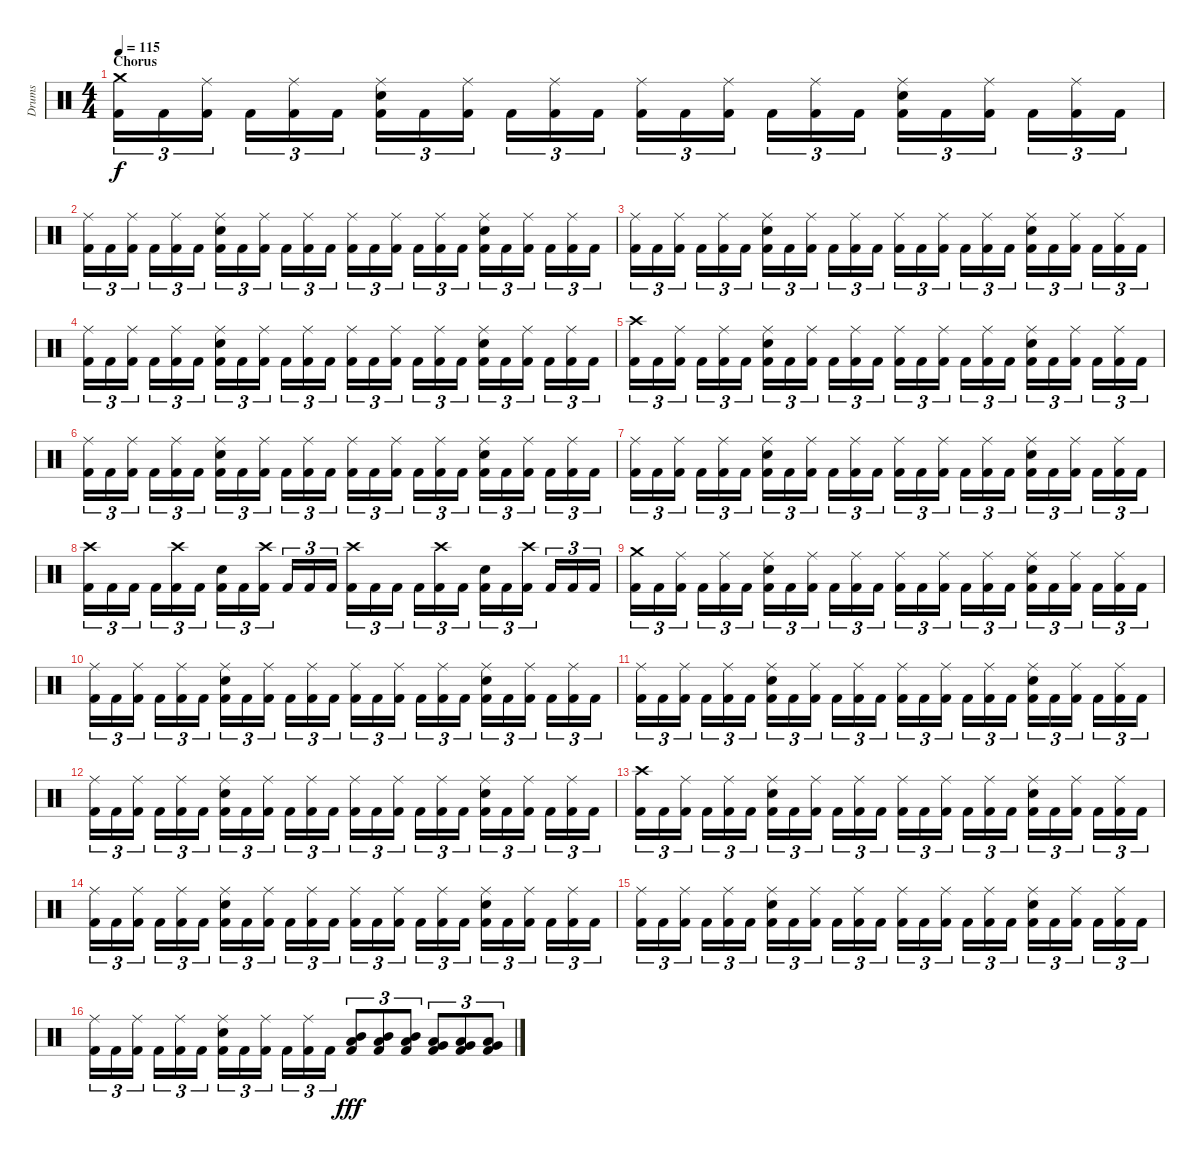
\track ("Drums" "Drums") {instrument percussion}
\staff {score}
\articulation defaults
\ts (4 4)
\section ("" "Chorus")
\tempo 115
\clef neutral
\ks c
("Kick (hit) 2" "Crash medium (hit)").16{tu (3 2) dy f} "Kick (hit) 2".16{tu (3 2)} ("Kick (hit) 2" "Ride (middle)").16{tu (3 2)} "Kick (hit) 2".16{tu (3 2)} ("Kick (hit) 2" "Ride (middle)").16{tu (3 2)} "Kick (hit) 2".16{tu (3 2)} ("Kick (hit) 2" "Electric Snare (hit)" "Ride (middle)").16{tu (3 2)} "Kick (hit) 2".16{tu (3 2)} ("Kick (hit) 2" "Ride (middle)").16{tu (3 2)} "Kick (hit) 2".16{tu (3 2)} ("Kick (hit) 2" "Ride (middle)").16{tu (3 2)} "Kick (hit) 2".16{tu (3 2)} ("Kick (hit) 2" "Ride (middle)").16{tu (3 2)} "Kick (hit) 2".16{tu (3 2)} ("Kick (hit) 2" "Ride (middle)").16{tu (3 2)} "Kick (hit) 2".16{tu (3 2)} ("Kick (hit) 2" "Ride (middle)").16{tu (3 2)} "Kick (hit) 2".16{tu (3 2)} ("Kick (hit) 2" "Electric Snare (hit)" "Ride (middle)").16{tu (3 2)} "Kick (hit) 2".16{tu (3 2)} ("Kick (hit) 2" "Ride (middle)").16{tu (3 2)} "Kick (hit) 2".16{tu (3 2)} ("Kick (hit) 2" "Ride (middle)").16{tu (3 2)} "Kick (hit) 2".16{tu (3 2)} |
("Kick (hit) 2" "Ride (middle)").16{tu (3 2)} "Kick (hit) 2".16{tu (3 2)} ("Kick (hit) 2" "Ride (middle)").16{tu (3 2)} "Kick (hit) 2".16{tu (3 2)} ("Kick (hit) 2" "Ride (middle)").16{tu (3 2)} "Kick (hit) 2".16{tu (3 2)} ("Kick (hit) 2" "Electric Snare (hit)" "Ride (middle)").16{tu (3 2)} "Kick (hit) 2".16{tu (3 2)} ("Kick (hit) 2" "Ride (middle)").16{tu (3 2)} "Kick (hit) 2".16{tu (3 2)} ("Kick (hit) 2" "Ride (middle)").16{tu (3 2)} "Kick (hit) 2".16{tu (3 2)} ("Kick (hit) 2" "Ride (middle)").16{tu (3 2)} "Kick (hit) 2".16{tu (3 2)} ("Kick (hit) 2" "Ride (middle)").16{tu (3 2)} "Kick (hit) 2".16{tu (3 2)} ("Kick (hit) 2" "Ride (middle)").16{tu (3 2)} "Kick (hit) 2".16{tu (3 2)} ("Kick (hit) 2" "Electric Snare (hit)" "Ride (middle)").16{tu (3 2)} "Kick (hit) 2".16{tu (3 2)} ("Kick (hit) 2" "Ride (middle)").16{tu (3 2)} "Kick (hit) 2".16{tu (3 2)} ("Kick (hit) 2" "Ride (middle)").16{tu (3 2)} "Kick (hit) 2".16{tu (3 2)} |
("Kick (hit) 2" "Ride (middle)").16{tu (3 2)} "Kick (hit) 2".16{tu (3 2)} ("Kick (hit) 2" "Ride (middle)").16{tu (3 2)} "Kick (hit) 2".16{tu (3 2)} ("Kick (hit) 2" "Ride (middle)").16{tu (3 2)} "Kick (hit) 2".16{tu (3 2)} ("Kick (hit) 2" "Electric Snare (hit)" "Ride (middle)").16{tu (3 2)} "Kick (hit) 2".16{tu (3 2)} ("Kick (hit) 2" "Ride (middle)").16{tu (3 2)} "Kick (hit) 2".16{tu (3 2)} ("Kick (hit) 2" "Ride (middle)").16{tu (3 2)} "Kick (hit) 2".16{tu (3 2)} ("Kick (hit) 2" "Ride (middle)").16{tu (3 2)} "Kick (hit) 2".16{tu (3 2)} ("Kick (hit) 2" "Ride (middle)").16{tu (3 2)} "Kick (hit) 2".16{tu (3 2)} ("Kick (hit) 2" "Ride (middle)").16{tu (3 2)} "Kick (hit) 2".16{tu (3 2)} ("Kick (hit) 2" "Electric Snare (hit)" "Ride (middle)").16{tu (3 2)} "Kick (hit) 2".16{tu (3 2)} ("Kick (hit) 2" "Ride (middle)").16{tu (3 2)} "Kick (hit) 2".16{tu (3 2)} ("Kick (hit) 2" "Ride (middle)").16{tu (3 2)} "Kick (hit) 2".16{tu (3 2)} |
("Kick (hit) 2" "Ride (middle)").16{tu (3 2)} "Kick (hit) 2".16{tu (3 2)} ("Kick (hit) 2" "Ride (middle)").16{tu (3 2)} "Kick (hit) 2".16{tu (3 2)} ("Kick (hit) 2" "Ride (middle)").16{tu (3 2)} "Kick (hit) 2".16{tu (3 2)} ("Kick (hit) 2" "Electric Snare (hit)" "Ride (middle)").16{tu (3 2)} "Kick (hit) 2".16{tu (3 2)} ("Kick (hit) 2" "Ride (middle)").16{tu (3 2)} "Kick (hit) 2".16{tu (3 2)} ("Kick (hit) 2" "Ride (middle)").16{tu (3 2)} "Kick (hit) 2".16{tu (3 2)} ("Kick (hit) 2" "Ride (middle)").16{tu (3 2)} "Kick (hit) 2".16{tu (3 2)} ("Kick (hit) 2" "Ride (middle)").16{tu (3 2)} "Kick (hit) 2".16{tu (3 2)} ("Kick (hit) 2" "Ride (middle)").16{tu (3 2)} "Kick (hit) 2".16{tu (3 2)} ("Kick (hit) 2" "Electric Snare (hit)" "Ride (middle)").16{tu (3 2)} "Kick (hit) 2".16{tu (3 2)} ("Kick (hit) 2" "Ride (middle)").16{tu (3 2)} "Kick (hit) 2".16{tu (3 2)} ("Kick (hit) 2" "Ride (middle)").16{tu (3 2)} "Kick (hit) 2".16{tu (3 2)} |
("Kick (hit) 2" "Crash high (hit)").16{tu (3 2)} "Kick (hit) 2".16{tu (3 2)} ("Kick (hit) 2" "Ride (middle)").16{tu (3 2)} "Kick (hit) 2".16{tu (3 2)} ("Kick (hit) 2" "Ride (middle)").16{tu (3 2)} "Kick (hit) 2".16{tu (3 2)} ("Kick (hit) 2" "Electric Snare (hit)" "Ride (middle)").16{tu (3 2)} "Kick (hit) 2".16{tu (3 2)} ("Kick (hit) 2" "Ride (middle)").16{tu (3 2)} "Kick (hit) 2".16{tu (3 2)} ("Kick (hit) 2" "Ride (middle)").16{tu (3 2)} "Kick (hit) 2".16{tu (3 2)} ("Kick (hit) 2" "Ride (middle)").16{tu (3 2)} "Kick (hit) 2".16{tu (3 2)} ("Kick (hit) 2" "Ride (middle)").16{tu (3 2)} "Kick (hit) 2".16{tu (3 2)} ("Kick (hit) 2" "Ride (middle)").16{tu (3 2)} "Kick (hit) 2".16{tu (3 2)} ("Kick (hit) 2" "Electric Snare (hit)" "Ride (middle)").16{tu (3 2)} "Kick (hit) 2".16{tu (3 2)} ("Kick (hit) 2" "Ride (middle)").16{tu (3 2)} "Kick (hit) 2".16{tu (3 2)} ("Kick (hit) 2" "Ride (middle)").16{tu (3 2)} "Kick (hit) 2".16{tu (3 2)} |
("Kick (hit) 2" "Ride (middle)").16{tu (3 2)} "Kick (hit) 2".16{tu (3 2)} ("Kick (hit) 2" "Ride (middle)").16{tu (3 2)} "Kick (hit) 2".16{tu (3 2)} ("Kick (hit) 2" "Ride (middle)").16{tu (3 2)} "Kick (hit) 2".16{tu (3 2)} ("Kick (hit) 2" "Electric Snare (hit)" "Ride (middle)").16{tu (3 2)} "Kick (hit) 2".16{tu (3 2)} ("Kick (hit) 2" "Ride (middle)").16{tu (3 2)} "Kick (hit) 2".16{tu (3 2)} ("Kick (hit) 2" "Ride (middle)").16{tu (3 2)} "Kick (hit) 2".16{tu (3 2)} ("Kick (hit) 2" "Ride (middle)").16{tu (3 2)} "Kick (hit) 2".16{tu (3 2)} ("Kick (hit) 2" "Ride (middle)").16{tu (3 2)} "Kick (hit) 2".16{tu (3 2)} ("Kick (hit) 2" "Ride (middle)").16{tu (3 2)} "Kick (hit) 2".16{tu (3 2)} ("Kick (hit) 2" "Electric Snare (hit)" "Ride (middle)").16{tu (3 2)} "Kick (hit) 2".16{tu (3 2)} ("Kick (hit) 2" "Ride (middle)").16{tu (3 2)} "Kick (hit) 2".16{tu (3 2)} ("Kick (hit) 2" "Ride (middle)").16{tu (3 2)} "Kick (hit) 2".16{tu (3 2)} |
("Kick (hit) 2" "Ride (middle)").16{tu (3 2)} "Kick (hit) 2".16{tu (3 2)} ("Kick (hit) 2" "Ride (middle)").16{tu (3 2)} "Kick (hit) 2".16{tu (3 2)} ("Kick (hit) 2" "Ride (middle)").16{tu (3 2)} "Kick (hit) 2".16{tu (3 2)} ("Kick (hit) 2" "Electric Snare (hit)" "Ride (middle)").16{tu (3 2)} "Kick (hit) 2".16{tu (3 2)} ("Kick (hit) 2" "Ride (middle)").16{tu (3 2)} "Kick (hit) 2".16{tu (3 2)} ("Kick (hit) 2" "Ride (middle)").16{tu (3 2)} "Kick (hit) 2".16{tu (3 2)} ("Kick (hit) 2" "Ride (middle)").16{tu (3 2)} "Kick (hit) 2".16{tu (3 2)} ("Kick (hit) 2" "Ride (middle)").16{tu (3 2)} "Kick (hit) 2".16{tu (3 2)} ("Kick (hit) 2" "Ride (middle)").16{tu (3 2)} "Kick (hit) 2".16{tu (3 2)} ("Kick (hit) 2" "Electric Snare (hit)" "Ride (middle)").16{tu (3 2)} "Kick (hit) 2".16{tu (3 2)} ("Kick (hit) 2" "Ride (middle)").16{tu (3 2)} "Kick (hit) 2".16{tu (3 2)} ("Kick (hit) 2" "Ride (middle)").16{tu (3 2)} "Kick (hit) 2".16{tu (3 2)} |
("Kick (hit) 2" "Crash high (hit)").16{tu (3 2)} "Kick (hit) 2".16{tu (3 2)} "Kick (hit) 2".16{tu (3 2)} "Kick (hit) 2".16{tu (3 2)} ("Kick (hit) 2" "Crash high (hit)").16{tu (3 2)} "Kick (hit) 2".16{tu (3 2)} ("Kick (hit) 2" "Electric Snare (hit)").16{tu (3 2)} "Kick (hit) 2".16{tu (3 2)} ("Kick (hit) 2" "Crash high (hit)").16{tu (3 2)} "Kick (hit) 2".16{tu (3 2)} "Kick (hit) 2".16{tu (3 2)} "Kick (hit) 2".16{tu (3 2)} ("Kick (hit) 2" "Crash high (hit)").16{tu (3 2)} "Kick (hit) 2".16{tu (3 2)} "Kick (hit) 2".16{tu (3 2)} "Kick (hit) 2".16{tu (3 2)} ("Kick (hit) 2" "Crash high (hit)").16{tu (3 2)} "Kick (hit) 2".16{tu (3 2)} ("Kick (hit) 2" "Electric Snare (hit)").16{tu (3 2)} "Kick (hit) 2".16{tu (3 2)} ("Kick (hit) 2" "Crash high (hit)").16{tu (3 2)} "Kick (hit) 2".16{tu (3 2)} "Kick (hit) 2".16{tu (3 2)} "Kick (hit) 2".16{tu (3 2)} |
("Kick (hit) 2" "Crash medium (hit)").16{tu (3 2)} "Kick (hit) 2".16{tu (3 2)} ("Kick (hit) 2" "Ride (middle)").16{tu (3 2)} "Kick (hit) 2".16{tu (3 2)} ("Kick (hit) 2" "Ride (middle)").16{tu (3 2)} "Kick (hit) 2".16{tu (3 2)} ("Kick (hit) 2" "Electric Snare (hit)" "Ride (middle)").16{tu (3 2)} "Kick (hit) 2".16{tu (3 2)} ("Kick (hit) 2" "Ride (middle)").16{tu (3 2)} "Kick (hit) 2".16{tu (3 2)} ("Kick (hit) 2" "Ride (middle)").16{tu (3 2)} "Kick (hit) 2".16{tu (3 2)} ("Kick (hit) 2" "Ride (middle)").16{tu (3 2)} "Kick (hit) 2".16{tu (3 2)} ("Kick (hit) 2" "Ride (middle)").16{tu (3 2)} "Kick (hit) 2".16{tu (3 2)} ("Kick (hit) 2" "Ride (middle)").16{tu (3 2)} "Kick (hit) 2".16{tu (3 2)} ("Kick (hit) 2" "Electric Snare (hit)" "Ride (middle)").16{tu (3 2)} "Kick (hit) 2".16{tu (3 2)} ("Kick (hit) 2" "Ride (middle)").16{tu (3 2)} "Kick (hit) 2".16{tu (3 2)} ("Kick (hit) 2" "Ride (middle)").16{tu (3 2)} "Kick (hit) 2".16{tu (3 2)} |
("Kick (hit) 2" "Ride (middle)").16{tu (3 2)} "Kick (hit) 2".16{tu (3 2)} ("Kick (hit) 2" "Ride (middle)").16{tu (3 2)} "Kick (hit) 2".16{tu (3 2)} ("Kick (hit) 2" "Ride (middle)").16{tu (3 2)} "Kick (hit) 2".16{tu (3 2)} ("Kick (hit) 2" "Electric Snare (hit)" "Ride (middle)").16{tu (3 2)} "Kick (hit) 2".16{tu (3 2)} ("Kick (hit) 2" "Ride (middle)").16{tu (3 2)} "Kick (hit) 2".16{tu (3 2)} ("Kick (hit) 2" "Ride (middle)").16{tu (3 2)} "Kick (hit) 2".16{tu (3 2)} ("Kick (hit) 2" "Ride (middle)").16{tu (3 2)} "Kick (hit) 2".16{tu (3 2)} ("Kick (hit) 2" "Ride (middle)").16{tu (3 2)} "Kick (hit) 2".16{tu (3 2)} ("Kick (hit) 2" "Ride (middle)").16{tu (3 2)} "Kick (hit) 2".16{tu (3 2)} ("Kick (hit) 2" "Electric Snare (hit)" "Ride (middle)").16{tu (3 2)} "Kick (hit) 2".16{tu (3 2)} ("Kick (hit) 2" "Ride (middle)").16{tu (3 2)} "Kick (hit) 2".16{tu (3 2)} ("Kick (hit) 2" "Ride (middle)").16{tu (3 2)} "Kick (hit) 2".16{tu (3 2)} |
("Kick (hit) 2" "Ride (middle)").16{tu (3 2)} "Kick (hit) 2".16{tu (3 2)} ("Kick (hit) 2" "Ride (middle)").16{tu (3 2)} "Kick (hit) 2".16{tu (3 2)} ("Kick (hit) 2" "Ride (middle)").16{tu (3 2)} "Kick (hit) 2".16{tu (3 2)} ("Kick (hit) 2" "Electric Snare (hit)" "Ride (middle)").16{tu (3 2)} "Kick (hit) 2".16{tu (3 2)} ("Kick (hit) 2" "Ride (middle)").16{tu (3 2)} "Kick (hit) 2".16{tu (3 2)} ("Kick (hit) 2" "Ride (middle)").16{tu (3 2)} "Kick (hit) 2".16{tu (3 2)} ("Kick (hit) 2" "Ride (middle)").16{tu (3 2)} "Kick (hit) 2".16{tu (3 2)} ("Kick (hit) 2" "Ride (middle)").16{tu (3 2)} "Kick (hit) 2".16{tu (3 2)} ("Kick (hit) 2" "Ride (middle)").16{tu (3 2)} "Kick (hit) 2".16{tu (3 2)} ("Kick (hit) 2" "Electric Snare (hit)" "Ride (middle)").16{tu (3 2)} "Kick (hit) 2".16{tu (3 2)} ("Kick (hit) 2" "Ride (middle)").16{tu (3 2)} "Kick (hit) 2".16{tu (3 2)} ("Kick (hit) 2" "Ride (middle)").16{tu (3 2)} "Kick (hit) 2".16{tu (3 2)} |
("Kick (hit) 2" "Ride (middle)").16{tu (3 2)} "Kick (hit) 2".16{tu (3 2)} ("Kick (hit) 2" "Ride (middle)").16{tu (3 2)} "Kick (hit) 2".16{tu (3 2)} ("Kick (hit) 2" "Ride (middle)").16{tu (3 2)} "Kick (hit) 2".16{tu (3 2)} ("Kick (hit) 2" "Electric Snare (hit)" "Ride (middle)").16{tu (3 2)} "Kick (hit) 2".16{tu (3 2)} ("Kick (hit) 2" "Ride (middle)").16{tu (3 2)} "Kick (hit) 2".16{tu (3 2)} ("Kick (hit) 2" "Ride (middle)").16{tu (3 2)} "Kick (hit) 2".16{tu (3 2)} ("Kick (hit) 2" "Ride (middle)").16{tu (3 2)} "Kick (hit) 2".16{tu (3 2)} ("Kick (hit) 2" "Ride (middle)").16{tu (3 2)} "Kick (hit) 2".16{tu (3 2)} ("Kick (hit) 2" "Ride (middle)").16{tu (3 2)} "Kick (hit) 2".16{tu (3 2)} ("Kick (hit) 2" "Electric Snare (hit)" "Ride (middle)").16{tu (3 2)} "Kick (hit) 2".16{tu (3 2)} ("Kick (hit) 2" "Ride (middle)").16{tu (3 2)} "Kick (hit) 2".16{tu (3 2)} ("Kick (hit) 2" "Ride (middle)").16{tu (3 2)} "Kick (hit) 2".16{tu (3 2)} |
("Kick (hit) 2" "Crash high (hit)").16{tu (3 2)} "Kick (hit) 2".16{tu (3 2)} ("Kick (hit) 2" "Ride (middle)").16{tu (3 2)} "Kick (hit) 2".16{tu (3 2)} ("Kick (hit) 2" "Ride (middle)").16{tu (3 2)} "Kick (hit) 2".16{tu (3 2)} ("Kick (hit) 2" "Electric Snare (hit)" "Ride (middle)").16{tu (3 2)} "Kick (hit) 2".16{tu (3 2)} ("Kick (hit) 2" "Ride (middle)").16{tu (3 2)} "Kick (hit) 2".16{tu (3 2)} ("Kick (hit) 2" "Ride (middle)").16{tu (3 2)} "Kick (hit) 2".16{tu (3 2)} ("Kick (hit) 2" "Ride (middle)").16{tu (3 2)} "Kick (hit) 2".16{tu (3 2)} ("Kick (hit) 2" "Ride (middle)").16{tu (3 2)} "Kick (hit) 2".16{tu (3 2)} ("Kick (hit) 2" "Ride (middle)").16{tu (3 2)} "Kick (hit) 2".16{tu (3 2)} ("Kick (hit) 2" "Electric Snare (hit)" "Ride (middle)").16{tu (3 2)} "Kick (hit) 2".16{tu (3 2)} ("Kick (hit) 2" "Ride (middle)").16{tu (3 2)} "Kick (hit) 2".16{tu (3 2)} ("Kick (hit) 2" "Ride (middle)").16{tu (3 2)} "Kick (hit) 2".16{tu (3 2)} |
("Kick (hit) 2" "Ride (middle)").16{tu (3 2)} "Kick (hit) 2".16{tu (3 2)} ("Kick (hit) 2" "Ride (middle)").16{tu (3 2)} "Kick (hit) 2".16{tu (3 2)} ("Kick (hit) 2" "Ride (middle)").16{tu (3 2)} "Kick (hit) 2".16{tu (3 2)} ("Kick (hit) 2" "Electric Snare (hit)" "Ride (middle)").16{tu (3 2)} "Kick (hit) 2".16{tu (3 2)} ("Kick (hit) 2" "Ride (middle)").16{tu (3 2)} "Kick (hit) 2".16{tu (3 2)} ("Kick (hit) 2" "Ride (middle)").16{tu (3 2)} "Kick (hit) 2".16{tu (3 2)} ("Kick (hit) 2" "Ride (middle)").16{tu (3 2)} "Kick (hit) 2".16{tu (3 2)} ("Kick (hit) 2" "Ride (middle)").16{tu (3 2)} "Kick (hit) 2".16{tu (3 2)} ("Kick (hit) 2" "Ride (middle)").16{tu (3 2)} "Kick (hit) 2".16{tu (3 2)} ("Kick (hit) 2" "Electric Snare (hit)" "Ride (middle)").16{tu (3 2)} "Kick (hit) 2".16{tu (3 2)} ("Kick (hit) 2" "Ride (middle)").16{tu (3 2)} "Kick (hit) 2".16{tu (3 2)} ("Kick (hit) 2" "Ride (middle)").16{tu (3 2)} "Kick (hit) 2".16{tu (3 2)} |
("Kick (hit) 2" "Ride (middle)").16{tu (3 2)} "Kick (hit) 2".16{tu (3 2)} ("Kick (hit) 2" "Ride (middle)").16{tu (3 2)} "Kick (hit) 2".16{tu (3 2)} ("Kick (hit) 2" "Ride (middle)").16{tu (3 2)} "Kick (hit) 2".16{tu (3 2)} ("Kick (hit) 2" "Electric Snare (hit)" "Ride (middle)").16{tu (3 2)} "Kick (hit) 2".16{tu (3 2)} ("Kick (hit) 2" "Ride (middle)").16{tu (3 2)} "Kick (hit) 2".16{tu (3 2)} ("Kick (hit) 2" "Ride (middle)").16{tu (3 2)} "Kick (hit) 2".16{tu (3 2)} ("Kick (hit) 2" "Ride (middle)").16{tu (3 2)} "Kick (hit) 2".16{tu (3 2)} ("Kick (hit) 2" "Ride (middle)").16{tu (3 2)} "Kick (hit) 2".16{tu (3 2)} ("Kick (hit) 2" "Ride (middle)").16{tu (3 2)} "Kick (hit) 2".16{tu (3 2)} ("Kick (hit) 2" "Electric Snare (hit)" "Ride (middle)").16{tu (3 2)} "Kick (hit) 2".16{tu (3 2)} ("Kick (hit) 2" "Ride (middle)").16{tu (3 2)} "Kick (hit) 2".16{tu (3 2)} ("Kick (hit) 2" "Ride (middle)").16{tu (3 2)} "Kick (hit) 2".16{tu (3 2)} |
("Kick (hit) 2" "Ride (middle)").16{tu (3 2)} "Kick (hit) 2".16{tu (3 2)} ("Kick (hit) 2" "Ride (middle)").16{tu (3 2)} "Kick (hit) 2".16{tu (3 2)} ("Kick (hit) 2" "Ride (middle)").16{tu (3 2)} "Kick (hit) 2".16{tu (3 2)} ("Kick (hit) 2" "Electric Snare (hit)" "Ride (middle)").16{tu (3 2)} "Kick (hit) 2".16{tu (3 2)} ("Kick (hit) 2" "Ride (middle)").16{tu (3 2)} "Kick (hit) 2".16{tu (3 2)} ("Kick (hit) 2" "Ride (middle)").16{tu (3 2)} "Kick (hit) 2".16{tu (3 2)} ("Kick (hit) 2" "Mid Tom (hit)" "Low Tom (hit)").8{tu (3 2) dy fff} ("Kick (hit) 2" "Mid Tom (hit)" "Low Tom (hit)").8{tu (3 2)} ("Kick (hit) 2" "Mid Tom (hit)" "Low Tom (hit)").8{tu (3 2)} ("Kick (hit) 2" "Low Tom (hit)" "Very Low Tom (hit)").8{tu (3 2)} ("Kick (hit) 2" "Low Tom (hit)" "Very Low Tom (hit)").8{tu (3 2)} ("Kick (hit) 2" "Low Tom (hit)" "Very Low Tom (hit)").8{tu (3 2)}
